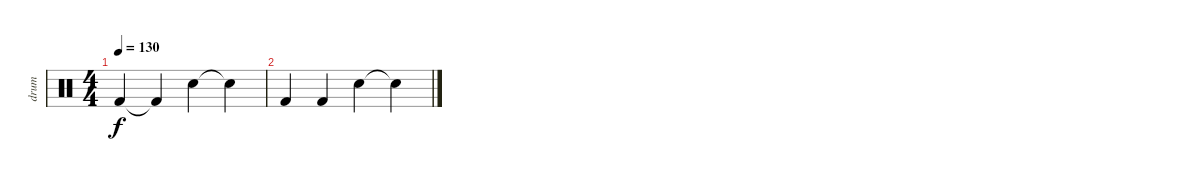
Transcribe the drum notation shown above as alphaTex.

\track ("drum" "drum") {instrument percussion}
\staff {score}
\articulation defaults
\ts (4 4)
\tempo 130
\clef neutral
\ks c "Kick (hit) 2".4{dy f} "Kick (hit) 2"{t}.4 "Snare (hit) 2".4 "Snare (hit)"{t}.4
|
"Kick (hit) 2".4 "Kick (hit) 2".4 "Snare (hit) 2".4 "Snare (hit)"{t}.4
